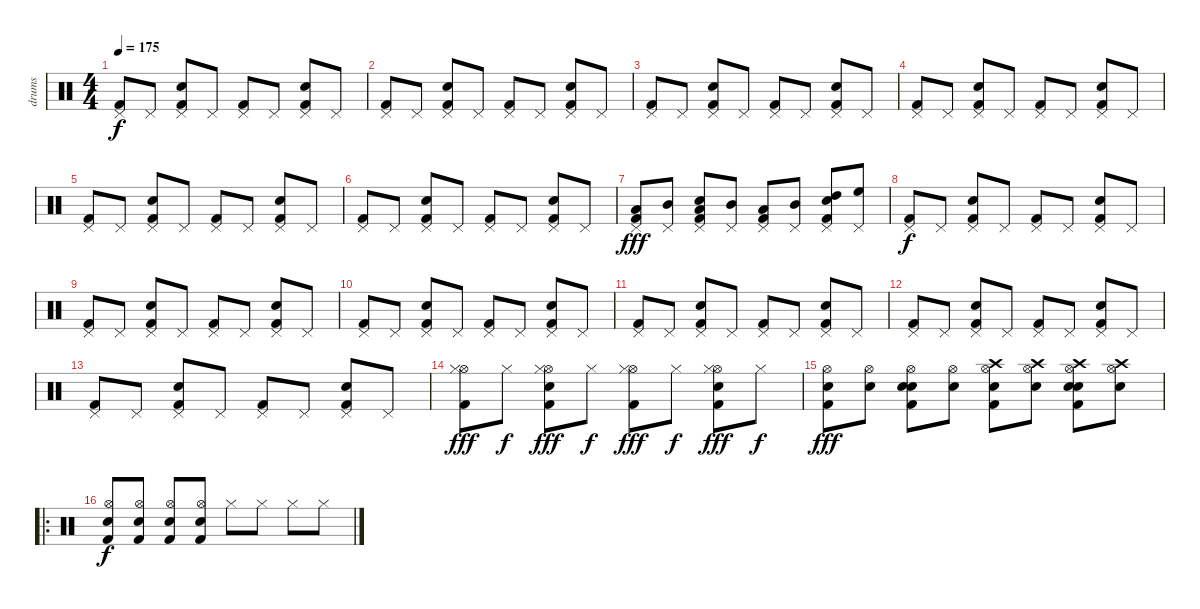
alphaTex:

\track ("drums" "drums") {instrument percussion}
\staff {score}
\articulation defaults
\ts (4 4)
\tempo 175
\clef neutral
\ks c
("Kick (hit) 2" "Pedal Hi-Hat (hit)").8{dy f} "Pedal Hi-Hat (hit)".8 ("Snare (hit) 2" "Kick (hit) 2" "Pedal Hi-Hat (hit)").8 "Pedal Hi-Hat (hit)".8 ("Kick (hit) 2" "Pedal Hi-Hat (hit)").8 "Pedal Hi-Hat (hit)".8 ("Snare (hit) 2" "Kick (hit) 2" "Pedal Hi-Hat (hit)").8 "Pedal Hi-Hat (hit)".8 |
("Kick (hit) 2" "Pedal Hi-Hat (hit)").8 "Pedal Hi-Hat (hit)".8 ("Snare (hit) 2" "Kick (hit) 2" "Pedal Hi-Hat (hit)").8 "Pedal Hi-Hat (hit)".8 ("Kick (hit) 2" "Pedal Hi-Hat (hit)").8 "Pedal Hi-Hat (hit)".8 ("Snare (hit) 2" "Kick (hit) 2" "Pedal Hi-Hat (hit)").8 "Pedal Hi-Hat (hit)".8 |
("Kick (hit) 2" "Pedal Hi-Hat (hit)").8 "Pedal Hi-Hat (hit)".8 ("Snare (hit) 2" "Kick (hit) 2" "Pedal Hi-Hat (hit)").8 "Pedal Hi-Hat (hit)".8 ("Kick (hit) 2" "Pedal Hi-Hat (hit)").8 "Pedal Hi-Hat (hit)".8 ("Snare (hit) 2" "Kick (hit) 2" "Pedal Hi-Hat (hit)").8 "Pedal Hi-Hat (hit)".8 |
("Kick (hit) 2" "Pedal Hi-Hat (hit)").8 "Pedal Hi-Hat (hit)".8 ("Snare (hit) 2" "Kick (hit) 2" "Pedal Hi-Hat (hit)").8 "Pedal Hi-Hat (hit)".8 ("Kick (hit) 2" "Pedal Hi-Hat (hit)").8 "Pedal Hi-Hat (hit)".8 ("Snare (hit) 2" "Kick (hit) 2" "Pedal Hi-Hat (hit)").8 "Pedal Hi-Hat (hit)".8 |
("Kick (hit) 2" "Pedal Hi-Hat (hit)").8 "Pedal Hi-Hat (hit)".8 ("Snare (hit) 2" "Kick (hit) 2" "Pedal Hi-Hat (hit)").8 "Pedal Hi-Hat (hit)".8 ("Kick (hit) 2" "Pedal Hi-Hat (hit)").8 "Pedal Hi-Hat (hit)".8 ("Snare (hit) 2" "Kick (hit) 2" "Pedal Hi-Hat (hit)").8 "Pedal Hi-Hat (hit)".8 |
("Kick (hit) 2" "Pedal Hi-Hat (hit)").8 "Pedal Hi-Hat (hit)".8 ("Snare (hit) 2" "Kick (hit) 2" "Pedal Hi-Hat (hit)").8 "Pedal Hi-Hat (hit)".8 ("Kick (hit) 2" "Pedal Hi-Hat (hit)").8 "Pedal Hi-Hat (hit)".8 ("Snare (hit) 2" "Kick (hit) 2" "Pedal Hi-Hat (hit)").8 "Pedal Hi-Hat (hit)".8 |
("Low Tom (hit)" "Kick (hit) 2" "Pedal Hi-Hat (hit)").8{dy fff} ("Mid Tom (hit)" "Pedal Hi-Hat (hit)").8 ("Low Tom (hit)" "Snare (hit) 2" "Kick (hit) 2" "Pedal Hi-Hat (hit)").8 ("Mid Tom (hit)" "Pedal Hi-Hat (hit)").8 ("Low Tom (hit)" "Kick (hit) 2" "Pedal Hi-Hat (hit)").8 ("Mid Tom (hit)" "Pedal Hi-Hat (hit)").8 ("High Tom (hit)" "Snare (hit) 2" "Kick (hit) 2" "Pedal Hi-Hat (hit)").8 ("High Floor Tom (hit)" "Pedal Hi-Hat (hit)").8 |
("Kick (hit) 2" "Pedal Hi-Hat (hit)").8{dy f} "Pedal Hi-Hat (hit)".8 ("Snare (hit) 2" "Kick (hit) 2" "Pedal Hi-Hat (hit)").8 "Pedal Hi-Hat (hit)".8 ("Kick (hit) 2" "Pedal Hi-Hat (hit)").8 "Pedal Hi-Hat (hit)".8 ("Snare (hit) 2" "Kick (hit) 2" "Pedal Hi-Hat (hit)").8 "Pedal Hi-Hat (hit)".8 |
("Kick (hit) 2" "Pedal Hi-Hat (hit)").8 "Pedal Hi-Hat (hit)".8 ("Snare (hit) 2" "Kick (hit) 2" "Pedal Hi-Hat (hit)").8 "Pedal Hi-Hat (hit)".8 ("Kick (hit) 2" "Pedal Hi-Hat (hit)").8 "Pedal Hi-Hat (hit)".8 ("Snare (hit) 2" "Kick (hit) 2" "Pedal Hi-Hat (hit)").8 "Pedal Hi-Hat (hit)".8 |
("Kick (hit) 2" "Pedal Hi-Hat (hit)").8 "Pedal Hi-Hat (hit)".8 ("Snare (hit) 2" "Kick (hit) 2" "Pedal Hi-Hat (hit)").8 "Pedal Hi-Hat (hit)".8 ("Kick (hit) 2" "Pedal Hi-Hat (hit)").8 "Pedal Hi-Hat (hit)".8 ("Snare (hit) 2" "Kick (hit) 2" "Pedal Hi-Hat (hit)").8 "Pedal Hi-Hat (hit)".8 |
("Kick (hit) 2" "Pedal Hi-Hat (hit)").8 "Pedal Hi-Hat (hit)".8 ("Snare (hit) 2" "Kick (hit) 2" "Pedal Hi-Hat (hit)").8 "Pedal Hi-Hat (hit)".8 ("Kick (hit) 2" "Pedal Hi-Hat (hit)").8 "Pedal Hi-Hat (hit)".8 ("Snare (hit) 2" "Kick (hit) 2" "Pedal Hi-Hat (hit)").8 "Pedal Hi-Hat (hit)".8 |
("Kick (hit) 2" "Pedal Hi-Hat (hit)").8 "Pedal Hi-Hat (hit)".8 ("Snare (hit) 2" "Kick (hit) 2" "Pedal Hi-Hat (hit)").8 "Pedal Hi-Hat (hit)".8 ("Kick (hit) 2" "Pedal Hi-Hat (hit)").8 "Pedal Hi-Hat (hit)".8 ("Snare (hit) 2" "Kick (hit) 2" "Pedal Hi-Hat (hit)").8 "Pedal Hi-Hat (hit)".8 |
("Kick (hit) 2" "Pedal Hi-Hat (hit)").8 "Pedal Hi-Hat (hit)".8 ("Snare (hit) 2" "Kick (hit) 2" "Pedal Hi-Hat (hit)").8 "Pedal Hi-Hat (hit)".8 ("Kick (hit) 2" "Pedal Hi-Hat (hit)").8 "Pedal Hi-Hat (hit)".8 ("Snare (hit) 2" "Kick (hit) 2" "Pedal Hi-Hat (hit)").8 "Pedal Hi-Hat (hit)".8 |
("Hi-Hat (open)" "Kick (hit) 2" "Hi-Hat (closed)").8{dy fff} "Hi-Hat (closed)".8{dy f} ("Hi-Hat (open)" "Snare (hit) 2" "Kick (hit) 2" "Hi-Hat (closed)").8{dy fff} "Hi-Hat (closed)".8{dy f} ("Hi-Hat (open)" "Kick (hit) 2" "Hi-Hat (closed)").8{dy fff} "Hi-Hat (closed)".8{dy f} ("Hi-Hat (open)" "Snare (hit) 2" "Kick (hit) 2" "Hi-Hat (closed)").8{dy fff} "Hi-Hat (closed)".8{dy f} |
("Hi-Hat (open)" "Kick (hit) 2" "Electric Snare (hit)").8{dy fff} ("Hi-Hat (open)" "Electric Snare (hit)").8 ("Hi-Hat (open)" "Snare (hit) 2" "Kick (hit) 2" "Electric Snare (hit)").8 ("Hi-Hat (open)" "Electric Snare (hit)").8 ("Hi-Hat (open)" "Crash high (hit)" "Kick (hit) 2" "Electric Snare (hit)").8 ("Hi-Hat (open)" "Crash high (hit)" "Electric Snare (hit)").8 ("Hi-Hat (open)" "Crash high (hit)" "Snare (hit) 2" "Kick (hit) 2" "Electric Snare (hit)").8 ("Hi-Hat (open)" "Crash high (hit)" "Electric Snare (hit)").8 |
\ro
("Electric Snare (hit)" "Kick (hit) 2" "Hi-Hat (open)").8{dy f} ("Electric Snare (hit)" "Kick (hit) 2" "Hi-Hat (open)").8 ("Electric Snare (hit)" "Kick (hit) 2" "Hi-Hat (open)").8 ("Electric Snare (hit)" "Kick (hit) 2" "Hi-Hat (open)").8 "Hi-Hat (closed)".8 "Hi-Hat (closed)".8 "Hi-Hat (closed)".8 "Hi-Hat (closed)".8
